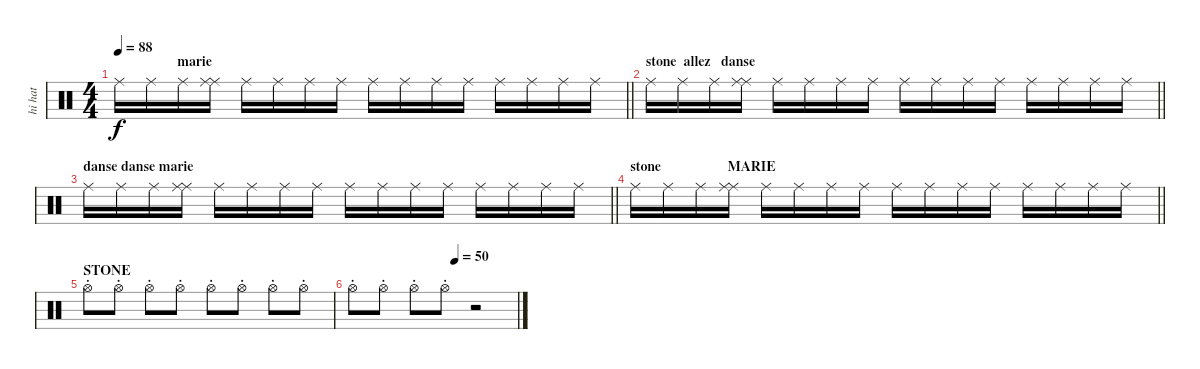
\track ("hi hat" "hi hat") {instrument percussion}
\staff {score}
\articulation defaults
\ts (4 4)
\section ("" "                  marie ")
\tempo 88
\clef neutral
\barLineRight lightlight
\ks c "Ride (middle)".16{dy f} "Ride (middle)".16 "Ride (middle)".16
("Ride (middle)" "Ride (middle)").16 "Ride (middle)".16 "Ride (middle)".16 "Ride (middle)".16 "Ride (middle)".16 "Ride (middle)".16 "Ride (middle)".16 "Ride (middle)".16 "Ride (middle)".16 "Ride (middle)".16 "Ride (middle)".16 "Ride (middle)".16 "Ride (middle)".16 |
\section ("" "stone  allez   danse")
\barLineRight lightlight "Ride (middle)".16 "Ride (middle)".16 "Ride (middle)".16
("Ride (middle)" "Ride (middle)").16 "Ride (middle)".16 "Ride (middle)".16 "Ride (middle)".16 "Ride (middle)".16 "Ride (middle)".16 "Ride (middle)".16 "Ride (middle)".16 "Ride (middle)".16 "Ride (middle)".16 "Ride (middle)".16 "Ride (middle)".16 "Ride (middle)".16 |
\section ("" "danse danse marie")
\barLineRight lightlight "Ride (middle)".16 "Ride (middle)".16 "Ride (middle)".16
("Ride (middle)" "Ride (middle)").16 "Ride (middle)".16 "Ride (middle)".16 "Ride (middle)".16 "Ride (middle)".16 "Ride (middle)".16 "Ride (middle)".16 "Ride (middle)".16 "Ride (middle)".16 "Ride (middle)".16 "Ride (middle)".16 "Ride (middle)".16 "Ride (middle)".16 |
\section ("" "stone                   MARIE")
\barLineRight lightlight "Ride (middle)".16 "Ride (middle)".16 "Ride (middle)".16
("Ride (middle)" "Ride (middle)").16 "Ride (middle)".16 "Ride (middle)".16 "Ride (middle)".16 "Ride (middle)".16 "Ride (middle)".16 "Ride (middle)".16 "Ride (middle)".16 "Ride (middle)".16 "Ride (middle)".16 "Ride (middle)".16 "Ride (middle)".16 "Ride (middle)".16 |
\section ("" "STONE")
"Hi-Hat (open)"{st}.8 "Hi-Hat (open)"{st}.8 "Hi-Hat (open)"{st}.8 "Hi-Hat (open)"{st}.8 "Hi-Hat (open)"{st}.8 "Hi-Hat (open)"{st}.8 "Hi-Hat (open)"{st}.8 "Hi-Hat (open)"{st}.8 |
\tempo (50 0.625)
"Hi-Hat (open)"{st}.8 "Hi-Hat (open)"{st}.8 "Hi-Hat (open)"{st}.8 "Hi-Hat (open)"{st}.8 r.2
